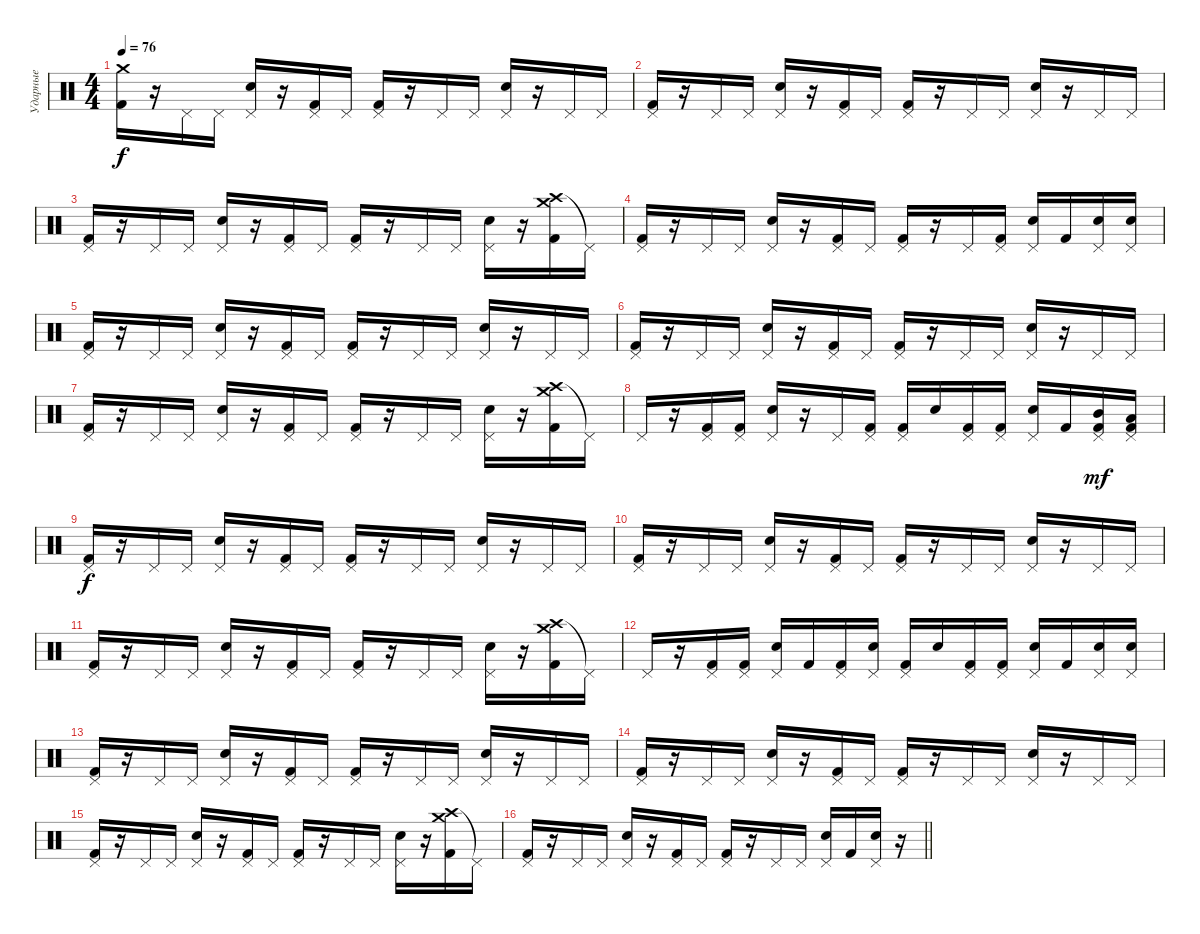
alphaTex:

\track ("Ударные" "Ударные") {instrument percussion}
\staff {score}
\articulation defaults
\ts (4 4)
\tempo 76
\clef neutral
\ks c
("Crash medium (hit)" "Kick (hit) 2").16{dy f} r.16 "Pedal Hi-Hat (hit)".16 "Pedal Hi-Hat (hit)".16 ("Pedal Hi-Hat (hit)" "Snare (hit) 2").16 r.16 ("Pedal Hi-Hat (hit)" "Kick (hit) 2").16 "Pedal Hi-Hat (hit)".16 ("Pedal Hi-Hat (hit)" "Kick (hit) 2").16 r.16 "Pedal Hi-Hat (hit)".16 "Pedal Hi-Hat (hit)".16 ("Pedal Hi-Hat (hit)" "Snare (hit) 2").16 r.16 "Pedal Hi-Hat (hit)".16 "Pedal Hi-Hat (hit)".16 |
("Pedal Hi-Hat (hit)" "Kick (hit) 2").16 r.16 "Pedal Hi-Hat (hit)".16 "Pedal Hi-Hat (hit)".16 ("Pedal Hi-Hat (hit)" "Snare (hit) 2").16 r.16 ("Pedal Hi-Hat (hit)" "Kick (hit) 2").16 "Pedal Hi-Hat (hit)".16 ("Pedal Hi-Hat (hit)" "Kick (hit) 2").16 r.16 "Pedal Hi-Hat (hit)".16 "Pedal Hi-Hat (hit)".16 ("Pedal Hi-Hat (hit)" "Snare (hit) 2").16 r.16 "Pedal Hi-Hat (hit)".16 "Pedal Hi-Hat (hit)".16 |
("Pedal Hi-Hat (hit)" "Kick (hit) 2").16 r.16 "Pedal Hi-Hat (hit)".16 "Pedal Hi-Hat (hit)".16 ("Pedal Hi-Hat (hit)" "Snare (hit) 2").16 r.16 ("Pedal Hi-Hat (hit)" "Kick (hit) 2").16 "Pedal Hi-Hat (hit)".16 ("Pedal Hi-Hat (hit)" "Kick (hit) 2").16 r.16 "Pedal Hi-Hat (hit)".16 "Pedal Hi-Hat (hit)".16 ("Pedal Hi-Hat (hit)" "Snare (hit) 2").16 r.16 ("Crash high (hit)" "Crash medium (hit)" "Kick (hit) 2").16 "Pedal Hi-Hat (hit)"{t}.16 |
("Pedal Hi-Hat (hit)" "Kick (hit) 2").16 r.16 "Pedal Hi-Hat (hit)".16 "Pedal Hi-Hat (hit)".16 ("Pedal Hi-Hat (hit)" "Snare (hit) 2").16 r.16 ("Pedal Hi-Hat (hit)" "Kick (hit) 2").16 "Pedal Hi-Hat (hit)".16 ("Pedal Hi-Hat (hit)" "Kick (hit) 2").16 r.16 "Pedal Hi-Hat (hit)".16 ("Pedal Hi-Hat (hit)" "Kick (hit) 2").16 ("Pedal Hi-Hat (hit)" "Snare (hit) 2").16 "Kick (hit) 2".16 ("Pedal Hi-Hat (hit)" "Snare (hit) 2").16 ("Pedal Hi-Hat (hit)" "Snare (hit) 2").16 |
("Pedal Hi-Hat (hit)" "Kick (hit) 2").16 r.16 "Pedal Hi-Hat (hit)".16 "Pedal Hi-Hat (hit)".16 ("Pedal Hi-Hat (hit)" "Snare (hit) 2").16 r.16 ("Pedal Hi-Hat (hit)" "Kick (hit) 2").16 "Pedal Hi-Hat (hit)".16 ("Pedal Hi-Hat (hit)" "Kick (hit) 2").16 r.16 "Pedal Hi-Hat (hit)".16 "Pedal Hi-Hat (hit)".16 ("Pedal Hi-Hat (hit)" "Snare (hit) 2").16 r.16 "Pedal Hi-Hat (hit)".16 "Pedal Hi-Hat (hit)".16 |
("Pedal Hi-Hat (hit)" "Kick (hit) 2").16 r.16 "Pedal Hi-Hat (hit)".16 "Pedal Hi-Hat (hit)".16 ("Pedal Hi-Hat (hit)" "Snare (hit) 2").16 r.16 ("Pedal Hi-Hat (hit)" "Kick (hit) 2").16 "Pedal Hi-Hat (hit)".16 ("Pedal Hi-Hat (hit)" "Kick (hit) 2").16 r.16 "Pedal Hi-Hat (hit)".16 "Pedal Hi-Hat (hit)".16 ("Pedal Hi-Hat (hit)" "Snare (hit) 2").16 r.16 "Pedal Hi-Hat (hit)".16 "Pedal Hi-Hat (hit)".16 |
("Pedal Hi-Hat (hit)" "Kick (hit) 2").16 r.16 "Pedal Hi-Hat (hit)".16 "Pedal Hi-Hat (hit)".16 ("Pedal Hi-Hat (hit)" "Snare (hit) 2").16 r.16 ("Pedal Hi-Hat (hit)" "Kick (hit) 2").16 "Pedal Hi-Hat (hit)".16 ("Pedal Hi-Hat (hit)" "Kick (hit) 2").16 r.16 "Pedal Hi-Hat (hit)".16 "Pedal Hi-Hat (hit)".16 ("Pedal Hi-Hat (hit)" "Snare (hit) 2").16 r.16 ("Crash high (hit)" "Crash medium (hit)" "Kick (hit) 2").16 "Pedal Hi-Hat (hit)"{t}.16 |
"Pedal Hi-Hat (hit)".16 r.16 ("Pedal Hi-Hat (hit)" "Kick (hit) 2").16 ("Pedal Hi-Hat (hit)" "Kick (hit) 2").16 ("Pedal Hi-Hat (hit)" "Snare (hit) 2").16 r.16 "Pedal Hi-Hat (hit)".16 ("Pedal Hi-Hat (hit)" "Kick (hit) 2").16 ("Pedal Hi-Hat (hit)" "Kick (hit) 2").16 "Snare (hit) 2".16 ("Pedal Hi-Hat (hit)" "Kick (hit) 2").16 ("Pedal Hi-Hat (hit)" "Kick (hit) 2").16 ("Pedal Hi-Hat (hit)" "Snare (hit) 2").16 "Kick (hit) 2".16 ("Pedal Hi-Hat (hit)" "Mid Tom (hit)" "Kick (hit) 2").16{dy mf} ("Pedal Hi-Hat (hit)" "Low Tom (hit)" "Kick (hit) 2").16 |
("Pedal Hi-Hat (hit)" "Kick (hit) 2").16{dy f} r.16 "Pedal Hi-Hat (hit)".16 "Pedal Hi-Hat (hit)".16 ("Pedal Hi-Hat (hit)" "Snare (hit) 2").16 r.16 ("Pedal Hi-Hat (hit)" "Kick (hit) 2").16 "Pedal Hi-Hat (hit)".16 ("Pedal Hi-Hat (hit)" "Kick (hit) 2").16 r.16 "Pedal Hi-Hat (hit)".16 "Pedal Hi-Hat (hit)".16 ("Pedal Hi-Hat (hit)" "Snare (hit) 2").16 r.16 "Pedal Hi-Hat (hit)".16 "Pedal Hi-Hat (hit)".16 |
("Pedal Hi-Hat (hit)" "Kick (hit) 2").16 r.16 "Pedal Hi-Hat (hit)".16 "Pedal Hi-Hat (hit)".16 ("Pedal Hi-Hat (hit)" "Snare (hit) 2").16 r.16 ("Pedal Hi-Hat (hit)" "Kick (hit) 2").16 "Pedal Hi-Hat (hit)".16 ("Pedal Hi-Hat (hit)" "Kick (hit) 2").16 r.16 "Pedal Hi-Hat (hit)".16 "Pedal Hi-Hat (hit)".16 ("Pedal Hi-Hat (hit)" "Snare (hit) 2").16 r.16 "Pedal Hi-Hat (hit)".16 "Pedal Hi-Hat (hit)".16 |
("Pedal Hi-Hat (hit)" "Kick (hit) 2").16 r.16 "Pedal Hi-Hat (hit)".16 "Pedal Hi-Hat (hit)".16 ("Pedal Hi-Hat (hit)" "Snare (hit) 2").16 r.16 ("Pedal Hi-Hat (hit)" "Kick (hit) 2").16 "Pedal Hi-Hat (hit)".16 ("Pedal Hi-Hat (hit)" "Kick (hit) 2").16 r.16 "Pedal Hi-Hat (hit)".16 "Pedal Hi-Hat (hit)".16 ("Pedal Hi-Hat (hit)" "Snare (hit) 2").16 r.16 ("Crash high (hit)" "Crash medium (hit)" "Kick (hit) 2").16 "Pedal Hi-Hat (hit)"{t}.16 |
"Pedal Hi-Hat (hit)".16 r.16 ("Pedal Hi-Hat (hit)" "Kick (hit) 2").16 ("Pedal Hi-Hat (hit)" "Kick (hit) 2").16 ("Pedal Hi-Hat (hit)" "Snare (hit) 2").16 "Kick (hit) 2".16 ("Pedal Hi-Hat (hit)" "Kick (hit) 2").16 ("Pedal Hi-Hat (hit)" "Snare (hit) 2").16 ("Pedal Hi-Hat (hit)" "Kick (hit) 2").16 "Snare (hit) 2".16 ("Pedal Hi-Hat (hit)" "Kick (hit) 2").16 ("Pedal Hi-Hat (hit)" "Kick (hit) 2").16 ("Pedal Hi-Hat (hit)" "Snare (hit) 2").16 "Kick (hit) 2".16 ("Pedal Hi-Hat (hit)" "Snare (hit) 2").16 ("Pedal Hi-Hat (hit)" "Snare (hit) 2").16 |
("Pedal Hi-Hat (hit)" "Kick (hit) 2").16 r.16 "Pedal Hi-Hat (hit)".16 "Pedal Hi-Hat (hit)".16 ("Pedal Hi-Hat (hit)" "Snare (hit) 2").16 r.16 ("Pedal Hi-Hat (hit)" "Kick (hit) 2").16 "Pedal Hi-Hat (hit)".16 ("Pedal Hi-Hat (hit)" "Kick (hit) 2").16 r.16 "Pedal Hi-Hat (hit)".16 "Pedal Hi-Hat (hit)".16 ("Pedal Hi-Hat (hit)" "Snare (hit) 2").16 r.16 "Pedal Hi-Hat (hit)".16 "Pedal Hi-Hat (hit)".16 |
("Pedal Hi-Hat (hit)" "Kick (hit) 2").16 r.16 "Pedal Hi-Hat (hit)".16 "Pedal Hi-Hat (hit)".16 ("Pedal Hi-Hat (hit)" "Snare (hit) 2").16 r.16 ("Pedal Hi-Hat (hit)" "Kick (hit) 2").16 "Pedal Hi-Hat (hit)".16 ("Pedal Hi-Hat (hit)" "Kick (hit) 2").16 r.16 "Pedal Hi-Hat (hit)".16 "Pedal Hi-Hat (hit)".16 ("Pedal Hi-Hat (hit)" "Snare (hit) 2").16 r.16 "Pedal Hi-Hat (hit)".16 "Pedal Hi-Hat (hit)".16 |
("Pedal Hi-Hat (hit)" "Kick (hit) 2").16 r.16 "Pedal Hi-Hat (hit)".16 "Pedal Hi-Hat (hit)".16 ("Pedal Hi-Hat (hit)" "Snare (hit) 2").16 r.16 ("Pedal Hi-Hat (hit)" "Kick (hit) 2").16 "Pedal Hi-Hat (hit)".16 ("Pedal Hi-Hat (hit)" "Kick (hit) 2").16 r.16 "Pedal Hi-Hat (hit)".16 "Pedal Hi-Hat (hit)".16 ("Pedal Hi-Hat (hit)" "Snare (hit) 2").16 r.16 ("Crash high (hit)" "Crash medium (hit)" "Kick (hit) 2").16 "Pedal Hi-Hat (hit)"{t}.16 |
\barLineRight lightlight
("Pedal Hi-Hat (hit)" "Kick (hit) 2").16 r.16 "Pedal Hi-Hat (hit)".16 "Pedal Hi-Hat (hit)".16 ("Pedal Hi-Hat (hit)" "Snare (hit) 2").16 r.16 ("Pedal Hi-Hat (hit)" "Kick (hit) 2").16 "Pedal Hi-Hat (hit)".16 ("Pedal Hi-Hat (hit)" "Kick (hit) 2").16 r.16 "Pedal Hi-Hat (hit)".16 "Pedal Hi-Hat (hit)".16 ("Pedal Hi-Hat (hit)" "Snare (hit) 2").16 "Kick (hit) 2".16 ("Pedal Hi-Hat (hit)" "Snare (hit) 2").16 r.16
